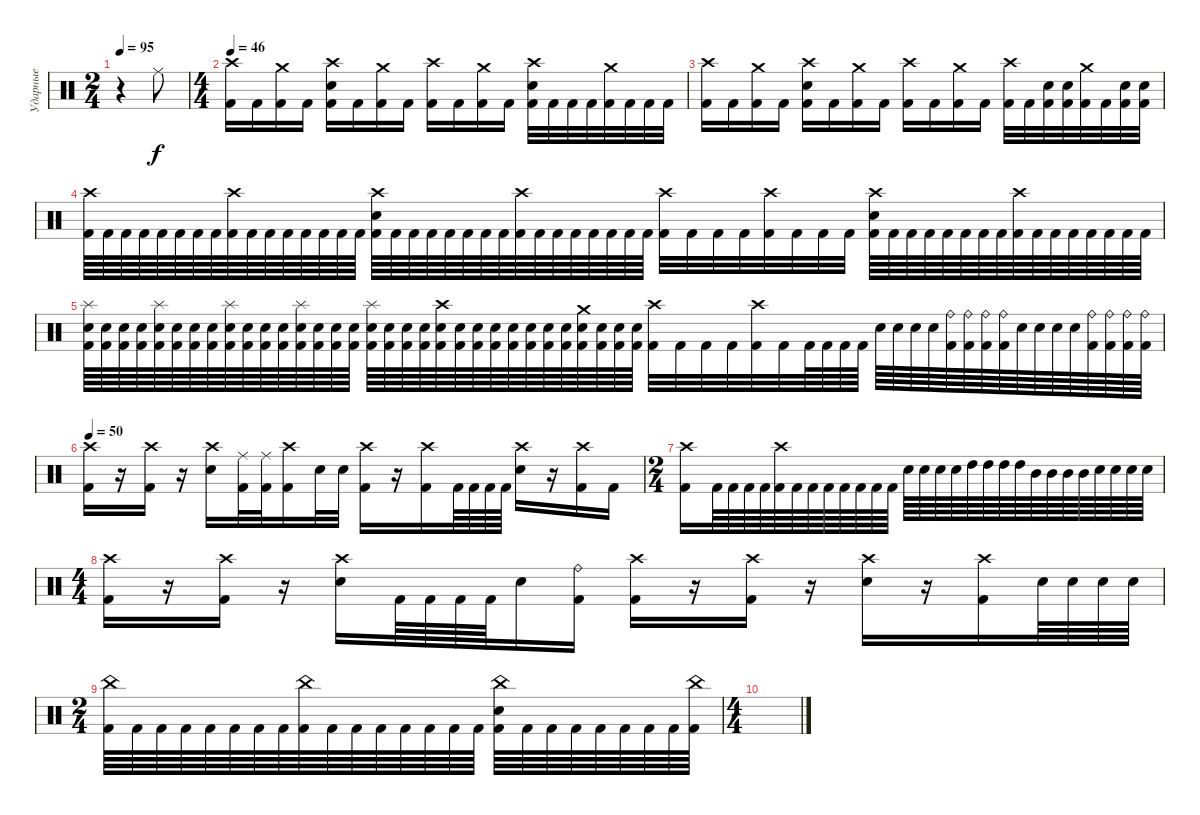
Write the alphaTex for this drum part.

\track ("Ударные" "Ударные") {instrument percussion}
\staff {score}
\articulation defaults
\ts (2 4)
\tempo 95
\clef neutral
\ks c
r.4{dy f} "Ride (middle)".8 |
\ts (4 4)
\tempo 46
("Crash high (hit)" "Kick (hit) 2").16 "Kick (hit) 2".16 ("Crash medium (hit)" "Kick (hit) 2").16 "Kick (hit) 2".16 ("Crash high (hit)" "Kick (hit) 2" "Electric Snare (hit)").16 "Kick (hit) 2".16 ("Crash medium (hit)" "Kick (hit) 2").16 "Kick (hit) 2".16 ("Crash high (hit)" "Kick (hit) 2").16 "Kick (hit) 2".16 ("Crash medium (hit)" "Kick (hit) 2").16 "Kick (hit) 2".16 ("Crash high (hit)" "Kick (hit) 2" "Electric Snare (hit)").32 "Kick (hit) 2".32 "Kick (hit) 2".32 "Kick (hit) 2".32 ("Crash medium (hit)" "Kick (hit) 2").32 "Kick (hit) 2".32 "Kick (hit) 2".32 "Kick (hit) 2".32 |
("Crash high (hit)" "Kick (hit) 2").16 "Kick (hit) 2".16 ("Crash medium (hit)" "Kick (hit) 2").16 "Kick (hit) 2".16 ("Crash high (hit)" "Kick (hit) 2" "Electric Snare (hit)").16 "Kick (hit) 2".16 ("Crash medium (hit)" "Kick (hit) 2").16 "Kick (hit) 2".16 ("Crash high (hit)" "Kick (hit) 2").16 "Kick (hit) 2".16 ("Crash medium (hit)" "Kick (hit) 2").16 "Kick (hit) 2".16 ("Crash high (hit)" "Kick (hit) 2").32 "Kick (hit) 2".32 ("Kick (hit) 2" "Electric Snare (hit)").32 ("Kick (hit) 2" "Electric Snare (hit)").32 ("Crash medium (hit)" "Kick (hit) 2").32 "Kick (hit) 2".32 ("Kick (hit) 2" "Electric Snare (hit)").32 ("Kick (hit) 2" "Electric Snare (hit)").32 |
("Crash high (hit)" "Kick (hit) 2").64 "Kick (hit) 2".64 "Kick (hit) 2".64 "Kick (hit) 2".64 "Kick (hit) 2".64 "Kick (hit) 2".64 "Kick (hit) 2".64 "Kick (hit) 2".64 ("Crash high (hit)" "Kick (hit) 2").64 "Kick (hit) 2".64 "Kick (hit) 2".64 "Kick (hit) 2".64 "Kick (hit) 2".64 "Kick (hit) 2".64 "Kick (hit) 2".64 "Kick (hit) 2".64 ("Crash high (hit)" "Kick (hit) 2" "Electric Snare (hit)").64 "Kick (hit) 2".64 "Kick (hit) 2".64 "Kick (hit) 2".64 "Kick (hit) 2".64 "Kick (hit) 2".64 "Kick (hit) 2".64 "Kick (hit) 2".64 ("Crash high (hit)" "Kick (hit) 2").64 "Kick (hit) 2".64 "Kick (hit) 2".64 "Kick (hit) 2".64 "Kick (hit) 2".64 "Kick (hit) 2".64 "Kick (hit) 2".64 "Kick (hit) 2".64 ("Crash high (hit)" "Kick (hit) 2").32 "Kick (hit) 2".32 "Kick (hit) 2".32 "Kick (hit) 2".32 ("Crash high (hit)" "Kick (hit) 2").32 "Kick (hit) 2".32 "Kick (hit) 2".32 "Kick (hit) 2".32 ("Crash high (hit)" "Kick (hit) 2" "Electric Snare (hit)").64 "Kick (hit) 2".64 "Kick (hit) 2".64 "Kick (hit) 2".64 "Kick (hit) 2".64 "Kick (hit) 2".64 "Kick (hit) 2".64 "Kick (hit) 2".64 ("Crash high (hit)" "Kick (hit) 2").64 "Kick (hit) 2".64 "Kick (hit) 2".64 "Kick (hit) 2".64 "Kick (hit) 2".64 "Kick (hit) 2".64 "Kick (hit) 2".64 "Kick (hit) 2".64 |
("Splash (hit)" "Electric Snare (hit)" "Kick (hit) 2").64 ("Electric Snare (hit)" "Kick (hit) 2").64 ("Electric Snare (hit)" "Kick (hit) 2").64 ("Electric Snare (hit)" "Kick (hit) 2").64 ("Splash (hit)" "Electric Snare (hit)" "Kick (hit) 2").64 ("Electric Snare (hit)" "Kick (hit) 2").64 ("Electric Snare (hit)" "Kick (hit) 2").64 ("Electric Snare (hit)" "Kick (hit) 2").64 ("Splash (hit)" "Electric Snare (hit)" "Kick (hit) 2").64 ("Electric Snare (hit)" "Kick (hit) 2").64 ("Electric Snare (hit)" "Kick (hit) 2").64 ("Electric Snare (hit)" "Kick (hit) 2").64 ("Splash (hit)" "Electric Snare (hit)" "Kick (hit) 2").64 ("Electric Snare (hit)" "Kick (hit) 2").64 ("Electric Snare (hit)" "Kick (hit) 2").64 ("Electric Snare (hit)" "Kick (hit) 2").64 ("Splash (hit)" "Electric Snare (hit)" "Kick (hit) 2").64 ("Electric Snare (hit)" "Kick (hit) 2").64 ("Electric Snare (hit)" "Kick (hit) 2").64 ("Electric Snare (hit)" "Kick (hit) 2").64 ("Crash high (hit)" "Electric Snare (hit)" "Kick (hit) 2").64 ("Electric Snare (hit)" "Kick (hit) 2").64 ("Electric Snare (hit)" "Kick (hit) 2").64 ("Electric Snare (hit)" "Kick (hit) 2").64 ("Electric Snare (hit)" "Kick (hit) 2").64 ("Electric Snare (hit)" "Kick (hit) 2").64 ("Electric Snare (hit)" "Kick (hit) 2").64 ("Electric Snare (hit)" "Kick (hit) 2").64 ("Crash medium (hit)" "Electric Snare (hit)" "Kick (hit) 2").64 ("Electric Snare (hit)" "Kick (hit) 2").64 ("Electric Snare (hit)" "Kick (hit) 2").64 ("Electric Snare (hit)" "Kick (hit) 2").64 ("Crash high (hit)" "Kick (hit) 2").32 "Kick (hit) 2".32 "Kick (hit) 2".32 "Kick (hit) 2".32 ("Crash high (hit)" "Kick (hit) 2").32 "Kick (hit) 2".32 "Kick (hit) 2".64 "Kick (hit) 2".64 "Kick (hit) 2".64 "Kick (hit) 2".64 "Electric Snare (hit)".64 "Electric Snare (hit)".64 "Electric Snare (hit)".64 "Electric Snare (hit)".64 ("Ride (bell)" "Kick (hit) 2").64 ("Ride (bell)" "Kick (hit) 2").64 ("Ride (bell)" "Kick (hit) 2").64 ("Ride (bell)" "Kick (hit) 2").64 "Electric Snare (hit)".64 "Electric Snare (hit)".64 "Electric Snare (hit)".64 "Electric Snare (hit)".64 ("Ride (bell)" "Kick (hit) 2").64 ("Ride (bell)" "Kick (hit) 2").64 ("Ride (bell)" "Kick (hit) 2").64 ("Ride (bell)" "Kick (hit) 2").64 |
\tempo 50
("Crash high (hit)" "Kick (hit) 2").16 r.16 ("Crash high (hit)" "Kick (hit) 2").16 r.16 ("Crash high (hit)" "Electric Snare (hit)").16 ("Ride (middle)" "Kick (hit) 2").32 ("Ride (middle)" "Kick (hit) 2").32 ("Crash high (hit)" "Kick (hit) 2").16 "Electric Snare (hit)".32 "Electric Snare (hit)".32 ("Crash high (hit)" "Kick (hit) 2").16 r.16 ("Crash high (hit)" "Kick (hit) 2").16 "Kick (hit) 2".64 "Kick (hit) 2".64 "Kick (hit) 2".64 "Kick (hit) 2".64 ("Crash high (hit)" "Electric Snare (hit)").16 r.16 ("Crash high (hit)" "Kick (hit) 2").16 "Kick (hit) 2".16 |
\ts (2 4)
("Crash high (hit)" "Kick (hit) 2").16 "Kick (hit) 2".64 "Kick (hit) 2".64 "Kick (hit) 2".64 "Kick (hit) 2".64 ("Crash high (hit)" "Kick (hit) 2").64 "Kick (hit) 2".64 "Kick (hit) 2".64 "Kick (hit) 2".64 "Kick (hit) 2".64 "Kick (hit) 2".64 "Kick (hit) 2".64 "Kick (hit) 2".64 "Electric Snare (hit)".64 "Electric Snare (hit)".64 "Electric Snare (hit)".64 "Electric Snare (hit)".64 "High Tom (hit)".64 "High Tom (hit)".64 "High Tom (hit)".64 "High Tom (hit)".64 "Mid Tom (hit)".64 "Mid Tom (hit)".64 "Mid Tom (hit)".64 "Mid Tom (hit)".64 "Electric Snare (hit)".64 "Electric Snare (hit)".64 "Electric Snare (hit)".64 "Electric Snare (hit)".64 |
\ts (4 4)
("Crash high (hit)" "Kick (hit) 2").16 r.16 ("Crash high (hit)" "Kick (hit) 2").16 r.16 ("Crash high (hit)" "Electric Snare (hit)").16 "Kick (hit) 2".64 "Kick (hit) 2".64 "Kick (hit) 2".64 "Kick (hit) 2".64 "Electric Snare (hit)".16 ("Ride (bell)" "Kick (hit) 2").16 ("Crash high (hit)" "Kick (hit) 2").16 r.16 ("Crash high (hit)" "Kick (hit) 2").16 r.16 ("Crash high (hit)" "Electric Snare (hit)").16 r.16 ("Crash high (hit)" "Kick (hit) 2").16 "Electric Snare (hit)".64 "Electric Snare (hit)".64 "Electric Snare (hit)".64 "Electric Snare (hit)".64 |
\ts (2 4)
("China (hit)" "Kick (hit) 2").64 "Kick (hit) 2".64 "Kick (hit) 2".64 "Kick (hit) 2".64 "Kick (hit) 2".64 "Kick (hit) 2".64 "Kick (hit) 2".64 "Kick (hit) 2".64 ("China (hit)" "Kick (hit) 2").64 "Kick (hit) 2".64 "Kick (hit) 2".64 "Kick (hit) 2".64 "Kick (hit) 2".64 "Kick (hit) 2".64 "Kick (hit) 2".64 "Kick (hit) 2".64 ("China (hit)" "Electric Snare (hit)" "Kick (hit) 2").64 "Kick (hit) 2".64 "Kick (hit) 2".64 "Kick (hit) 2".64 "Kick (hit) 2".64 "Kick (hit) 2".64 "Kick (hit) 2".64 "Kick (hit) 2".64 ("China (hit)" "Kick (hit) 2").64 |
\ts (4 4)
